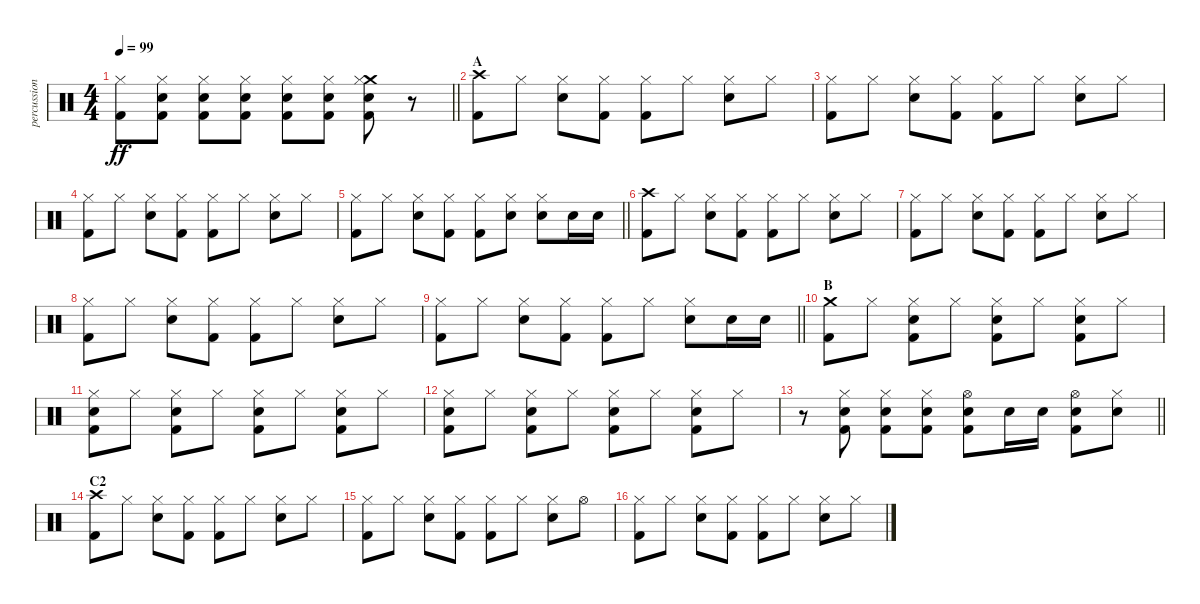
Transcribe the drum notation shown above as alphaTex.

\track ("percussion" "percussion") {instrument percussion}
\staff {score}
\articulation defaults
\ts (4 4)
\tempo 99
\clef neutral
\barLineRight lightlight
\ks c
("Hi-Hat (closed)" "Kick (hit) 2").8{dy ff} ("Snare (hit) 2" "Hi-Hat (closed)" "Kick (hit) 2").8 ("Snare (hit) 2" "Hi-Hat (closed)" "Kick (hit) 2").8 ("Snare (hit) 2" "Hi-Hat (closed)" "Kick (hit) 2").8 ("Snare (hit) 2" "Hi-Hat (closed)" "Kick (hit) 2").8 ("Snare (hit) 2" "Hi-Hat (closed)" "Kick (hit) 2").8 ("Crash medium (hit)" "Snare (hit) 2" "Hi-Hat (closed)" "Kick (hit) 2").8 r.8 |
\section ("" "A")
("Crash high (hit)" "Kick (hit) 2").8 "Hi-Hat (closed)".8 ("Snare (hit) 2" "Hi-Hat (closed)").8 ("Hi-Hat (closed)" "Kick (hit) 2").8 ("Hi-Hat (closed)" "Kick (hit) 2").8 "Hi-Hat (closed)".8 ("Snare (hit) 2" "Hi-Hat (closed)").8 "Hi-Hat (closed)".8 |
("Hi-Hat (closed)" "Kick (hit) 2").8 "Hi-Hat (closed)".8 ("Snare (hit) 2" "Hi-Hat (closed)").8 ("Hi-Hat (closed)" "Kick (hit) 2").8 ("Hi-Hat (closed)" "Kick (hit) 2").8 "Hi-Hat (closed)".8 ("Snare (hit) 2" "Hi-Hat (closed)").8 "Hi-Hat (closed)".8 |
("Hi-Hat (closed)" "Kick (hit) 2").8 "Hi-Hat (closed)".8 ("Snare (hit) 2" "Hi-Hat (closed)").8 ("Hi-Hat (closed)" "Kick (hit) 2").8 ("Hi-Hat (closed)" "Kick (hit) 2").8 "Hi-Hat (closed)".8 ("Snare (hit) 2" "Hi-Hat (closed)").8 "Hi-Hat (closed)".8 |
\barLineRight lightlight
("Hi-Hat (closed)" "Kick (hit) 2").8 "Hi-Hat (closed)".8 ("Snare (hit) 2" "Hi-Hat (closed)").8 ("Hi-Hat (closed)" "Kick (hit) 2").8 ("Hi-Hat (closed)" "Kick (hit) 2").8 ("Snare (hit) 2" "Hi-Hat (closed)").8 ("Snare (hit) 2" "Hi-Hat (closed)").8 "Snare (hit) 2".16 "Snare (hit) 2".16 |
("Crash high (hit)" "Kick (hit) 2").8 "Hi-Hat (closed)".8 ("Snare (hit) 2" "Hi-Hat (closed)").8 ("Hi-Hat (closed)" "Kick (hit) 2").8 ("Hi-Hat (closed)" "Kick (hit) 2").8 "Hi-Hat (closed)".8 ("Snare (hit) 2" "Hi-Hat (closed)").8 "Hi-Hat (closed)".8 |
("Hi-Hat (closed)" "Kick (hit) 2").8 "Hi-Hat (closed)".8 ("Snare (hit) 2" "Hi-Hat (closed)").8 ("Hi-Hat (closed)" "Kick (hit) 2").8 ("Hi-Hat (closed)" "Kick (hit) 2").8 "Hi-Hat (closed)".8 ("Snare (hit) 2" "Hi-Hat (closed)").8 "Hi-Hat (closed)".8 |
("Hi-Hat (closed)" "Kick (hit) 2").8 "Hi-Hat (closed)".8 ("Snare (hit) 2" "Hi-Hat (closed)").8 ("Hi-Hat (closed)" "Kick (hit) 2").8 ("Hi-Hat (closed)" "Kick (hit) 2").8 "Hi-Hat (closed)".8 ("Snare (hit) 2" "Hi-Hat (closed)").8 "Hi-Hat (closed)".8 |
\barLineRight lightlight
("Hi-Hat (closed)" "Kick (hit) 2").8 "Hi-Hat (closed)".8 ("Snare (hit) 2" "Hi-Hat (closed)").8 ("Hi-Hat (closed)" "Kick (hit) 2").8 ("Hi-Hat (closed)" "Kick (hit) 2").8 "Hi-Hat (closed)".8 ("Snare (hit) 2" "Hi-Hat (closed)").8 "Snare (hit) 2".16 "Snare (hit) 2".16 |
\section ("" "B")
("Crash medium (hit)" "Kick (hit) 2").8 "Hi-Hat (closed)".8 ("Snare (hit) 2" "Hi-Hat (closed)" "Kick (hit) 2").8 "Hi-Hat (closed)".8 ("Snare (hit) 2" "Hi-Hat (closed)" "Kick (hit) 2").8 "Hi-Hat (closed)".8 ("Snare (hit) 2" "Hi-Hat (closed)" "Kick (hit) 2").8 "Hi-Hat (closed)".8 |
("Snare (hit) 2" "Hi-Hat (closed)" "Kick (hit) 2").8 "Hi-Hat (closed)".8 ("Snare (hit) 2" "Hi-Hat (closed)" "Kick (hit) 2").8 "Hi-Hat (closed)".8 ("Snare (hit) 2" "Hi-Hat (closed)" "Kick (hit) 2").8 "Hi-Hat (closed)".8 ("Snare (hit) 2" "Hi-Hat (closed)" "Kick (hit) 2").8 "Hi-Hat (closed)".8 |
("Snare (hit) 2" "Hi-Hat (closed)" "Kick (hit) 2").8 "Hi-Hat (closed)".8 ("Snare (hit) 2" "Hi-Hat (closed)" "Kick (hit) 2").8 "Hi-Hat (closed)".8 ("Snare (hit) 2" "Hi-Hat (closed)" "Kick (hit) 2").8 "Hi-Hat (closed)".8 ("Snare (hit) 2" "Hi-Hat (closed)" "Kick (hit) 2").8 "Hi-Hat (closed)".8 |
\barLineRight lightlight
r.8 ("Snare (hit) 2" "Hi-Hat (closed)" "Kick (hit) 2").8 ("Snare (hit) 2" "Hi-Hat (closed)" "Kick (hit) 2").8 ("Snare (hit) 2" "Hi-Hat (closed)" "Kick (hit) 2").8 ("Snare (hit) 2" "Hi-Hat (open)" "Kick (hit) 2").8 "Snare (hit) 2".16 "Snare (hit) 2".16 ("Snare (hit) 2" "Hi-Hat (open)" "Kick (hit) 2").8 ("Snare (hit) 2" "Hi-Hat (closed)").8 |
\section ("" "C2")
("Crash high (hit)" "Kick (hit) 2").8 "Hi-Hat (closed)".8 ("Snare (hit) 2" "Hi-Hat (closed)").8 ("Hi-Hat (closed)" "Kick (hit) 2").8 ("Hi-Hat (closed)" "Kick (hit) 2").8 "Hi-Hat (closed)".8 ("Snare (hit) 2" "Hi-Hat (closed)").8 "Hi-Hat (closed)".8 |
("Hi-Hat (closed)" "Kick (hit) 2").8 "Hi-Hat (closed)".8 ("Snare (hit) 2" "Hi-Hat (closed)").8 ("Hi-Hat (closed)" "Kick (hit) 2").8 ("Hi-Hat (closed)" "Kick (hit) 2").8 "Hi-Hat (closed)".8 ("Snare (hit) 2" "Hi-Hat (closed)").8 "Hi-Hat (open)".8 |
("Hi-Hat (closed)" "Kick (hit) 2").8 "Hi-Hat (closed)".8 ("Snare (hit) 2" "Hi-Hat (closed)").8 ("Hi-Hat (closed)" "Kick (hit) 2").8 ("Hi-Hat (closed)" "Kick (hit) 2").8 "Hi-Hat (closed)".8 ("Snare (hit) 2" "Hi-Hat (closed)").8 "Hi-Hat (closed)".8
